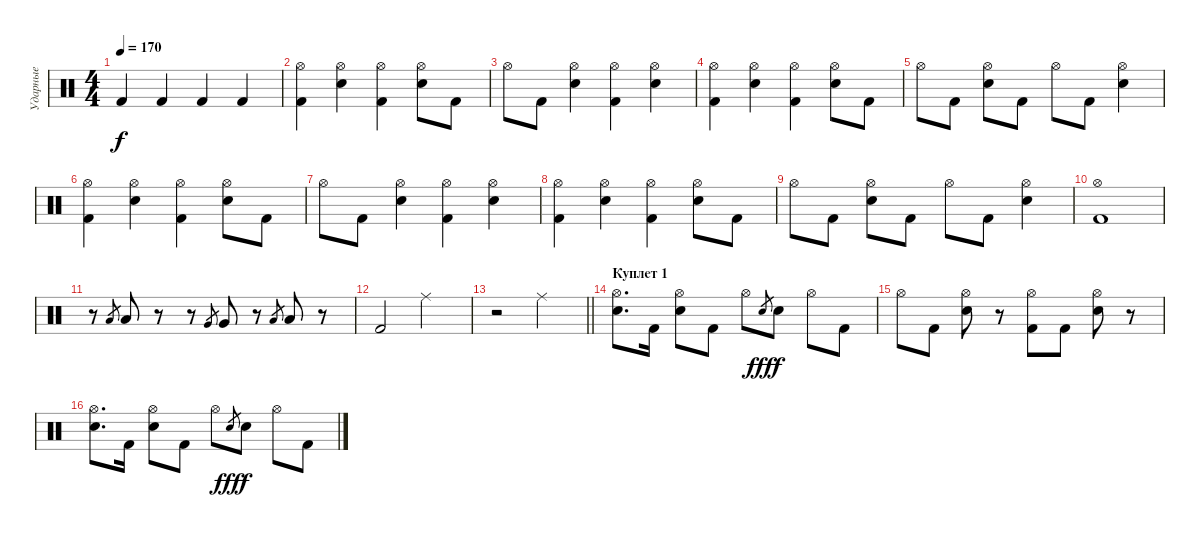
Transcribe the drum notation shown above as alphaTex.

\track ("Ударные" "Ударные") {instrument percussion}
\staff {score}
\articulation defaults
\ts (4 4)
\tempo 170
\clef neutral
\ks c "Kick (hit) 2".4{dy f} "Kick (hit) 2".4 "Kick (hit) 2".4 "Kick (hit) 2".4
|
("Hi-Hat (open)" "Kick (hit) 2").4 ("Hi-Hat (open)" "Electric Snare (hit)").4 ("Hi-Hat (open)" "Kick (hit) 2").4 ("Hi-Hat (open)" "Electric Snare (hit)").8 "Kick (hit) 2".8 |
"Hi-Hat (open)".8 "Kick (hit) 2".8 ("Hi-Hat (open)" "Electric Snare (hit)").4 ("Hi-Hat (open)" "Kick (hit) 2").4 ("Hi-Hat (open)" "Electric Snare (hit)").4 |
("Hi-Hat (open)" "Kick (hit) 2").4 ("Hi-Hat (open)" "Electric Snare (hit)").4 ("Hi-Hat (open)" "Kick (hit) 2").4 ("Hi-Hat (open)" "Electric Snare (hit)").8 "Kick (hit) 2".8 |
"Hi-Hat (open)".8 "Kick (hit) 2".8 ("Hi-Hat (open)" "Electric Snare (hit)").8 "Kick (hit) 2".8 "Hi-Hat (open)".8 "Kick (hit) 2".8 ("Hi-Hat (open)" "Electric Snare (hit)").4 |
("Hi-Hat (open)" "Kick (hit) 2").4 ("Hi-Hat (open)" "Electric Snare (hit)").4 ("Hi-Hat (open)" "Kick (hit) 2").4 ("Hi-Hat (open)" "Electric Snare (hit)").8 "Kick (hit) 2".8 |
"Hi-Hat (open)".8 "Kick (hit) 2".8 ("Hi-Hat (open)" "Electric Snare (hit)").4 ("Hi-Hat (open)" "Kick (hit) 2").4 ("Hi-Hat (open)" "Electric Snare (hit)").4 |
("Hi-Hat (open)" "Kick (hit) 2").4 ("Hi-Hat (open)" "Electric Snare (hit)").4 ("Hi-Hat (open)" "Kick (hit) 2").4 ("Hi-Hat (open)" "Electric Snare (hit)").8 "Kick (hit) 2".8 |
"Hi-Hat (open)".8 "Kick (hit) 2".8 ("Hi-Hat (open)" "Electric Snare (hit)").8 "Kick (hit) 2".8 "Hi-Hat (open)".8 "Kick (hit) 2".8 ("Hi-Hat (open)" "Electric Snare (hit)").4 |
("Hi-Hat (open)" "Kick (hit) 2").1 |
r.8 "Low Tom (hit)".8{gr} "Low Tom (hit)".8 r.8 r.8 "Very Low Tom (hit)".8{gr} "Very Low Tom (hit)".8 r.8 "Low Floor Tom (hit)".8{gr} "Low Floor Tom (hit)".8 r.8 |
"Kick (hit) 2".2 "Ride (middle)".2 |
\barLineRight lightlight
r.2 "Ride (middle)".2 |
\section ("" "Куплет 1")
("Electric Snare (hit)" "Hi-Hat (open)").8{d} "Kick (hit) 2".16 ("Electric Snare (hit)" "Hi-Hat (open)").8 "Kick (hit) 2".8 "Hi-Hat (open)".8 "Electric Snare (hit)"{x}.8{gr dy fff} "Electric Snare (hit)".8{dy f} "Hi-Hat (open)".8 "Kick (hit) 2".8 |
"Hi-Hat (open)".8 "Kick (hit) 2".8 ("Electric Snare (hit)" "Hi-Hat (open)").8 r.8 ("Kick (hit) 2" "Hi-Hat (open)").8 "Kick (hit) 2".8 ("Electric Snare (hit)" "Hi-Hat (open)").8 r.8 |
("Electric Snare (hit)" "Hi-Hat (open)").8{d} "Kick (hit) 2".16 ("Electric Snare (hit)" "Hi-Hat (open)").8 "Kick (hit) 2".8 "Hi-Hat (open)".8 "Electric Snare (hit)"{x}.8{gr dy fff} "Electric Snare (hit)".8{dy f} "Hi-Hat (open)".8 "Kick (hit) 2".8
